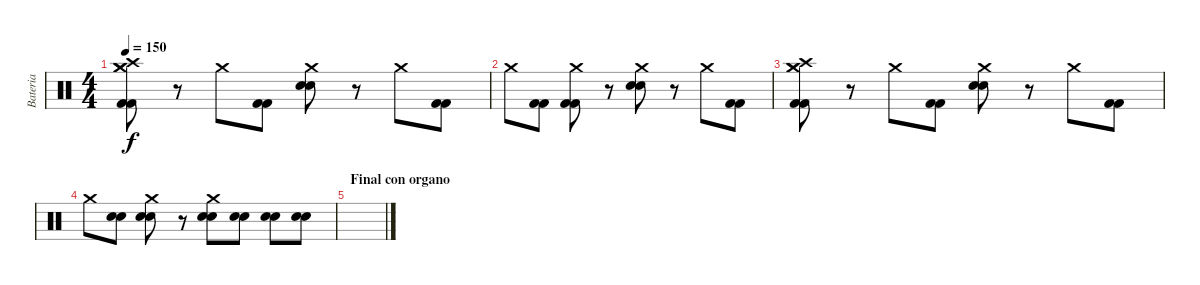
\track ("Bateria" "Bateria") {instrument percussion}
\staff {score}
\articulation defaults
\ts (4 4)
\tempo 150
\clef neutral
\ks c
("Crash medium (hit)" "Crash high (hit)" "Crash medium (hit)" "Kick (hit) 2" "Kick (hit) 2").8{dy f} r.8 "Crash medium (hit)".8 ("Kick (hit) 2" "Kick (hit) 2").8 ("Crash medium (hit)" "Electric Snare (hit)" "Electric Snare (hit)").8 r.8 "Crash medium (hit)".8 ("Kick (hit) 2" "Kick (hit) 2").8 |
"Crash medium (hit)".8 ("Kick (hit) 2" "Kick (hit) 2").8 ("Crash medium (hit)" "Kick (hit) 2" "Kick (hit) 2").8 r.8 ("Crash medium (hit)" "Electric Snare (hit)" "Electric Snare (hit)").8 r.8 "Crash medium (hit)".8 ("Kick (hit) 2" "Kick (hit) 2").8 |
("Crash medium (hit)" "Crash high (hit)" "Crash medium (hit)" "Kick (hit) 2" "Kick (hit) 2").8 r.8 "Crash medium (hit)".8 ("Kick (hit) 2" "Kick (hit) 2").8 ("Crash medium (hit)" "Electric Snare (hit)" "Electric Snare (hit)").8 r.8 "Crash medium (hit)".8 ("Kick (hit) 2" "Kick (hit) 2").8 |
"Crash medium (hit)".8 ("Electric Snare (hit)" "Electric Snare (hit)").8 ("Crash medium (hit)" "Electric Snare (hit)" "Electric Snare (hit)").8 r.8 ("Crash medium (hit)" "Electric Snare (hit)" "Electric Snare (hit)").8 ("Electric Snare (hit)" "Electric Snare (hit)").8 ("Electric Snare (hit)" "Electric Snare (hit)").8 ("Electric Snare (hit)" "Electric Snare (hit)").8 |
\section ("" "Final con organo")
